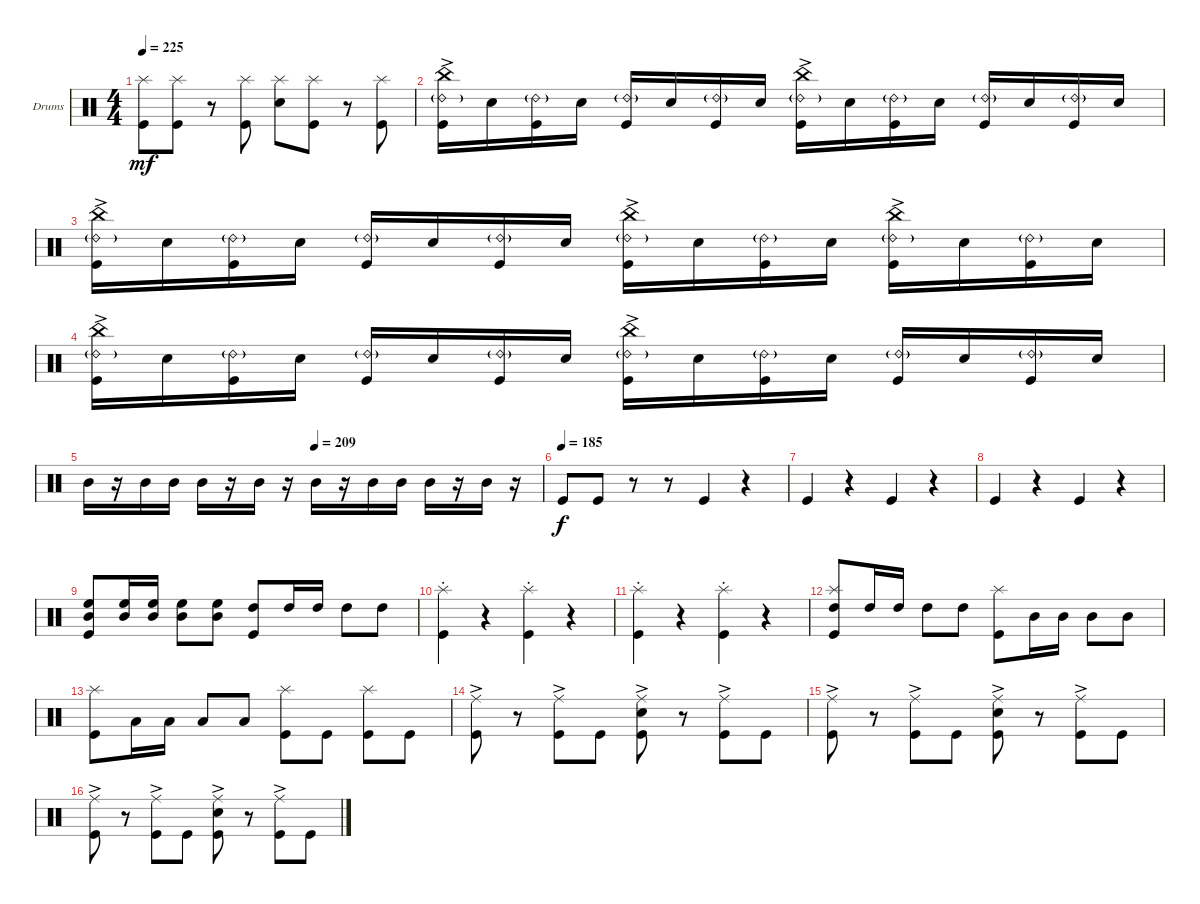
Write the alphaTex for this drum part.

\bracketExtendMode groupsimilarinstruments
\firstSystemTrackNameOrientation horizontal
\otherSystemsTrackNameOrientation horizontal
\track ("Drumkit" "Drums") {instrument percussion}
\staff {score}
\articulation defaults
\ts (4 4)
\tempo 225
\clef neutral
\ks c
("Kick (hit)" "Splash (hit)").8{dy mf} ("Kick (hit)" "Splash (hit)").8 r.8 ("Kick (hit)" "Splash (hit)").8 ("Snare (hit) 2" "Splash (hit)").8 ("Kick (hit)" "Splash (hit)").8 r.8 ("Kick (hit)" "Splash (hit)").8 |
("Kick (hit)" "Ride (bell) 2"{g} "China (hit)"{ac}).16 "Snare (hit) 2".16 ("Kick (hit)" "Ride (bell) 2"{g}).16 "Snare (hit) 2".16 ("Kick (hit)" "Ride (bell) 2"{g}).16 "Snare (hit) 2".16 ("Kick (hit)" "Ride (bell) 2"{g}).16 "Snare (hit) 2".16 ("Kick (hit)" "Ride (bell) 2"{g} "China (hit)"{ac}).16 "Snare (hit) 2".16 ("Kick (hit)" "Ride (bell) 2"{g}).16 "Snare (hit) 2".16 ("Kick (hit)" "Ride (bell) 2"{g}).16 "Snare (hit) 2".16 ("Kick (hit)" "Ride (bell) 2"{g}).16 "Snare (hit) 2".16 |
("Kick (hit)" "Ride (bell) 2"{g} "China (hit)"{ac}).16 "Snare (hit) 2".16 ("Kick (hit)" "Ride (bell) 2"{g}).16 "Snare (hit) 2".16 ("Kick (hit)" "Ride (bell) 2"{g}).16 "Snare (hit) 2".16 ("Kick (hit)" "Ride (bell) 2"{g}).16 "Snare (hit) 2".16 ("Kick (hit)" "Ride (bell) 2"{g} "China (hit)"{ac}).16 "Snare (hit) 2".16 ("Kick (hit)" "Ride (bell) 2"{g}).16 "Snare (hit) 2".16 ("Kick (hit)" "Ride (bell) 2"{g} "China (hit)"{ac}).16 "Snare (hit) 2".16 ("Kick (hit)" "Ride (bell) 2"{g}).16 "Snare (hit) 2".16 |
("Kick (hit)" "Ride (bell) 2"{g} "China (hit)"{ac}).16 "Snare (hit) 2".16 ("Kick (hit)" "Ride (bell) 2"{g}).16 "Snare (hit) 2".16 ("Kick (hit)" "Ride (bell) 2"{g}).16 "Snare (hit) 2".16 ("Kick (hit)" "Ride (bell) 2"{g}).16 "Snare (hit) 2".16 ("Kick (hit)" "Ride (bell) 2"{g} "China (hit)"{ac}).16 "Snare (hit) 2".16 ("Kick (hit)" "Ride (bell) 2"{g}).16 "Snare (hit) 2".16 ("Kick (hit)" "Ride (bell) 2"{g}).16 "Snare (hit) 2".16 ("Kick (hit)" "Ride (bell) 2"{g}).16 "Snare (hit) 2".16 |
\tempo (209 0.5)
"Mid Tom (hit)".16 r.16 "Mid Tom (hit)".16 "Mid Tom (hit)".16 "Mid Tom (hit)".16 r.16 "Mid Tom (hit)".16 r.16 "Mid Tom (hit)".16 r.16 "Mid Tom (hit)".16 "Mid Tom (hit)".16 "Mid Tom (hit)".16 r.16 "Mid Tom (hit)".16 r.16 |
\tempo (185)
"Kick (hit)".8{dy f} "Kick (hit)".8 r.8 r.8 "Kick (hit)".4 r.4 |
"Kick (hit)".4 r.4 "Kick (hit)".4 r.4 |
"Kick (hit)".4 r.4 "Kick (hit)".4 r.4 |
("High Floor Tom (hit)" "Kick (hit)" "Mid Tom (hit)").8 ("High Floor Tom (hit)" "Mid Tom (hit)").16 ("High Floor Tom (hit)" "Mid Tom (hit)").16 ("High Floor Tom (hit)" "Mid Tom (hit)").8 ("High Floor Tom (hit)" "Mid Tom (hit)").8 ("High Tom (hit)" "Kick (hit)").8 "High Tom (hit)".16 "High Tom (hit)".16 "High Tom (hit)".8 "High Tom (hit)".8 |
("Kick (hit)"{st} "Splash (hit)"{st}).4 r.4 ("Kick (hit)"{st} "Splash (hit)"{st}).4 r.4 |
("Kick (hit)"{st} "Splash (hit)"{st}).4 r.4 ("Kick (hit)"{st} "Splash (hit)"{st}).4 r.4 |
("Splash (hit)" "Kick (hit)" "High Tom (hit)").8 "High Tom (hit)".16 "High Tom (hit)".16 "High Tom (hit)".8 "High Tom (hit)".8 ("Splash (hit)" "Kick (hit)").8 "Mid Tom (hit)".16 "Mid Tom (hit)".16 "Mid Tom (hit)".8 "Mid Tom (hit)".8 |
("Splash (hit)" "Kick (hit)").8 "Low Tom (hit)".16 "Low Tom (hit)".16 "Low Tom (hit)".8 "Low Tom (hit)".8 ("Kick (hit)" "Splash (hit)").8 "Kick (hit)".8 ("Kick (hit)" "Splash (hit)").8 "Kick (hit)".8 |
("Kick (hit)" "Ride (middle)"{ac}).8 r.8 ("Kick (hit)" "Ride (middle)"{ac}).8 "Kick (hit)".8 ("Kick (hit)" "Snare (hit) 2"{ac} "Ride (middle)"{ac}).8 r.8 ("Kick (hit)" "Ride (middle)"{ac}).8 "Kick (hit)".8 |
("Kick (hit)" "Ride (middle)"{ac}).8 r.8 ("Kick (hit)" "Ride (middle)"{ac}).8 "Kick (hit)".8 ("Kick (hit)" "Snare (hit) 2"{ac} "Ride (middle)"{ac}).8 r.8 ("Kick (hit)" "Ride (middle)"{ac}).8 "Kick (hit)".8 |
("Kick (hit)" "Ride (middle)"{ac}).8 r.8 ("Kick (hit)" "Ride (middle)"{ac}).8 "Kick (hit)".8 ("Kick (hit)" "Snare (hit) 2"{ac} "Ride (middle)"{ac}).8 r.8 ("Kick (hit)" "Ride (middle)"{ac}).8 "Kick (hit)".8
